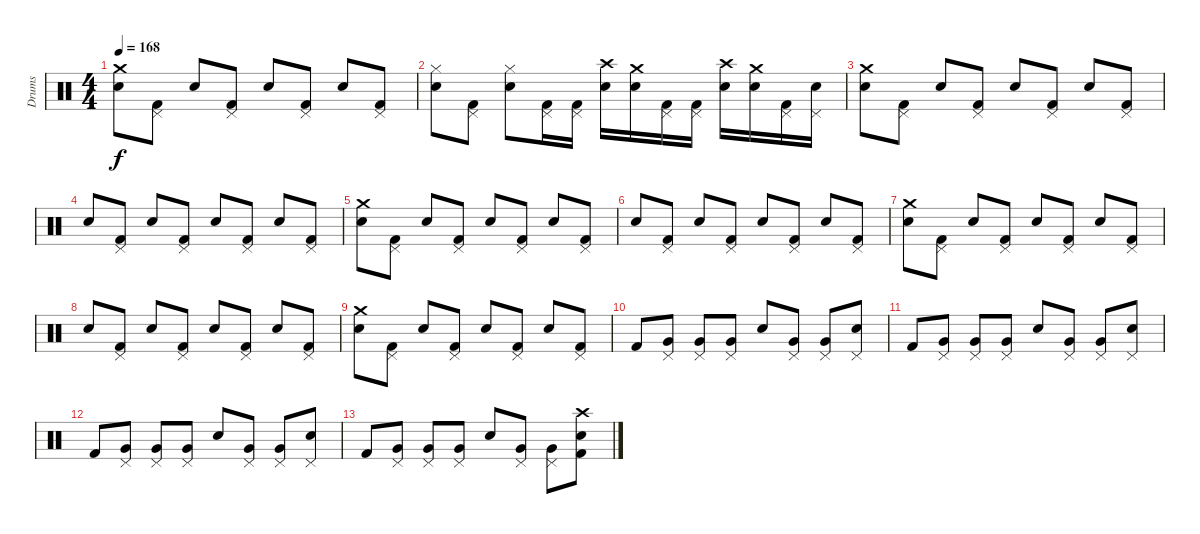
\track ("Drums" "Drums") {instrument percussion}
\staff {score}
\articulation defaults
\ts (4 4)
\tempo 168
\clef neutral
\ks c
("Crash medium (hit)" "Electric Snare (hit)").8{dy f} ("Pedal Hi-Hat (hit)" "Kick (hit) 2").8 "Electric Snare (hit)".8 ("Pedal Hi-Hat (hit)" "Kick (hit) 2").8 "Electric Snare (hit)".8 ("Pedal Hi-Hat (hit)" "Kick (hit) 2").8 "Electric Snare (hit)".8 ("Pedal Hi-Hat (hit)" "Kick (hit) 2").8 |
("Hi-Hat (closed)" "Electric Snare (hit)").8 ("Pedal Hi-Hat (hit)" "Kick (hit) 2").8 ("Hi-Hat (closed)" "Electric Snare (hit)").8 ("Pedal Hi-Hat (hit)" "Kick (hit) 2").16 ("Pedal Hi-Hat (hit)" "Kick (hit) 2").16 ("Crash high (hit)" "Electric Snare (hit)").16 ("Crash medium (hit)" "Electric Snare (hit)").16 ("Pedal Hi-Hat (hit)" "Kick (hit) 2").16 ("Pedal Hi-Hat (hit)" "Kick (hit) 2").16 ("Crash high (hit)" "Electric Snare (hit)").16 ("Crash medium (hit)" "Electric Snare (hit)").16 ("Pedal Hi-Hat (hit)" "Kick (hit) 2").16 ("Pedal Hi-Hat (hit)" "Electric Snare (hit)").16 |
("Crash medium (hit)" "Electric Snare (hit)").8 ("Pedal Hi-Hat (hit)" "Kick (hit) 2").8 "Electric Snare (hit)".8 ("Pedal Hi-Hat (hit)" "Kick (hit) 2").8 "Electric Snare (hit)".8 ("Pedal Hi-Hat (hit)" "Kick (hit) 2").8 "Electric Snare (hit)".8 ("Pedal Hi-Hat (hit)" "Kick (hit) 2").8 |
"Electric Snare (hit)".8 ("Pedal Hi-Hat (hit)" "Kick (hit) 2").8 "Electric Snare (hit)".8 ("Pedal Hi-Hat (hit)" "Kick (hit) 2").8 "Electric Snare (hit)".8 ("Pedal Hi-Hat (hit)" "Kick (hit) 2").8 "Electric Snare (hit)".8 ("Pedal Hi-Hat (hit)" "Kick (hit) 2").8 |
("Crash medium (hit)" "Electric Snare (hit)").8 ("Pedal Hi-Hat (hit)" "Kick (hit) 2").8 "Electric Snare (hit)".8 ("Pedal Hi-Hat (hit)" "Kick (hit) 2").8 "Electric Snare (hit)".8 ("Pedal Hi-Hat (hit)" "Kick (hit) 2").8 "Electric Snare (hit)".8 ("Pedal Hi-Hat (hit)" "Kick (hit) 2").8 |
"Electric Snare (hit)".8 ("Pedal Hi-Hat (hit)" "Kick (hit) 2").8 "Electric Snare (hit)".8 ("Pedal Hi-Hat (hit)" "Kick (hit) 2").8 "Electric Snare (hit)".8 ("Pedal Hi-Hat (hit)" "Kick (hit) 2").8 "Electric Snare (hit)".8 ("Pedal Hi-Hat (hit)" "Kick (hit) 2").8 |
("Crash medium (hit)" "Electric Snare (hit)").8 ("Pedal Hi-Hat (hit)" "Kick (hit) 2").8 "Electric Snare (hit)".8 ("Pedal Hi-Hat (hit)" "Kick (hit) 2").8 "Electric Snare (hit)".8 ("Pedal Hi-Hat (hit)" "Kick (hit) 2").8 "Electric Snare (hit)".8 ("Pedal Hi-Hat (hit)" "Kick (hit) 2").8 |
"Electric Snare (hit)".8 ("Pedal Hi-Hat (hit)" "Kick (hit) 2").8 "Electric Snare (hit)".8 ("Pedal Hi-Hat (hit)" "Kick (hit) 2").8 "Electric Snare (hit)".8 ("Pedal Hi-Hat (hit)" "Kick (hit) 2").8 "Electric Snare (hit)".8 ("Pedal Hi-Hat (hit)" "Kick (hit) 2").8 |
("Crash medium (hit)" "Electric Snare (hit)").8 ("Pedal Hi-Hat (hit)" "Kick (hit) 2").8 "Electric Snare (hit)".8 ("Pedal Hi-Hat (hit)" "Kick (hit) 2").8 "Electric Snare (hit)".8 ("Pedal Hi-Hat (hit)" "Kick (hit) 2").8 "Electric Snare (hit)".8 ("Pedal Hi-Hat (hit)" "Kick (hit) 2").8 |
"Kick (hit) 2".8 ("Pedal Hi-Hat (hit)" "Very Low Tom (hit)").8 ("Pedal Hi-Hat (hit)" "Very Low Tom (hit)").8 ("Pedal Hi-Hat (hit)" "Very Low Tom (hit)").8 "Electric Snare (hit)".8 ("Pedal Hi-Hat (hit)" "Very Low Tom (hit)").8 ("Pedal Hi-Hat (hit)" "Very Low Tom (hit)").8 ("Pedal Hi-Hat (hit)" "Electric Snare (hit)").8 |
"Kick (hit) 2".8 ("Pedal Hi-Hat (hit)" "Very Low Tom (hit)").8 ("Pedal Hi-Hat (hit)" "Very Low Tom (hit)").8 ("Pedal Hi-Hat (hit)" "Very Low Tom (hit)").8 "Electric Snare (hit)".8 ("Pedal Hi-Hat (hit)" "Very Low Tom (hit)").8 ("Pedal Hi-Hat (hit)" "Very Low Tom (hit)").8 ("Pedal Hi-Hat (hit)" "Electric Snare (hit)").8 |
"Kick (hit) 2".8 ("Pedal Hi-Hat (hit)" "Very Low Tom (hit)").8 ("Pedal Hi-Hat (hit)" "Very Low Tom (hit)").8 ("Pedal Hi-Hat (hit)" "Very Low Tom (hit)").8 "Electric Snare (hit)".8 ("Pedal Hi-Hat (hit)" "Very Low Tom (hit)").8 ("Pedal Hi-Hat (hit)" "Very Low Tom (hit)").8 ("Pedal Hi-Hat (hit)" "Electric Snare (hit)").8 |
"Kick (hit) 2".8 ("Pedal Hi-Hat (hit)" "Very Low Tom (hit)").8 ("Pedal Hi-Hat (hit)" "Very Low Tom (hit)").8 ("Pedal Hi-Hat (hit)" "Very Low Tom (hit)").8 "Electric Snare (hit)".8 ("Pedal Hi-Hat (hit)" "Very Low Tom (hit)").8 ("Pedal Hi-Hat (hit)" "Very Low Tom (hit)").8 ("Crash high (hit)" "Electric Snare (hit)" "Kick (hit) 2").8
